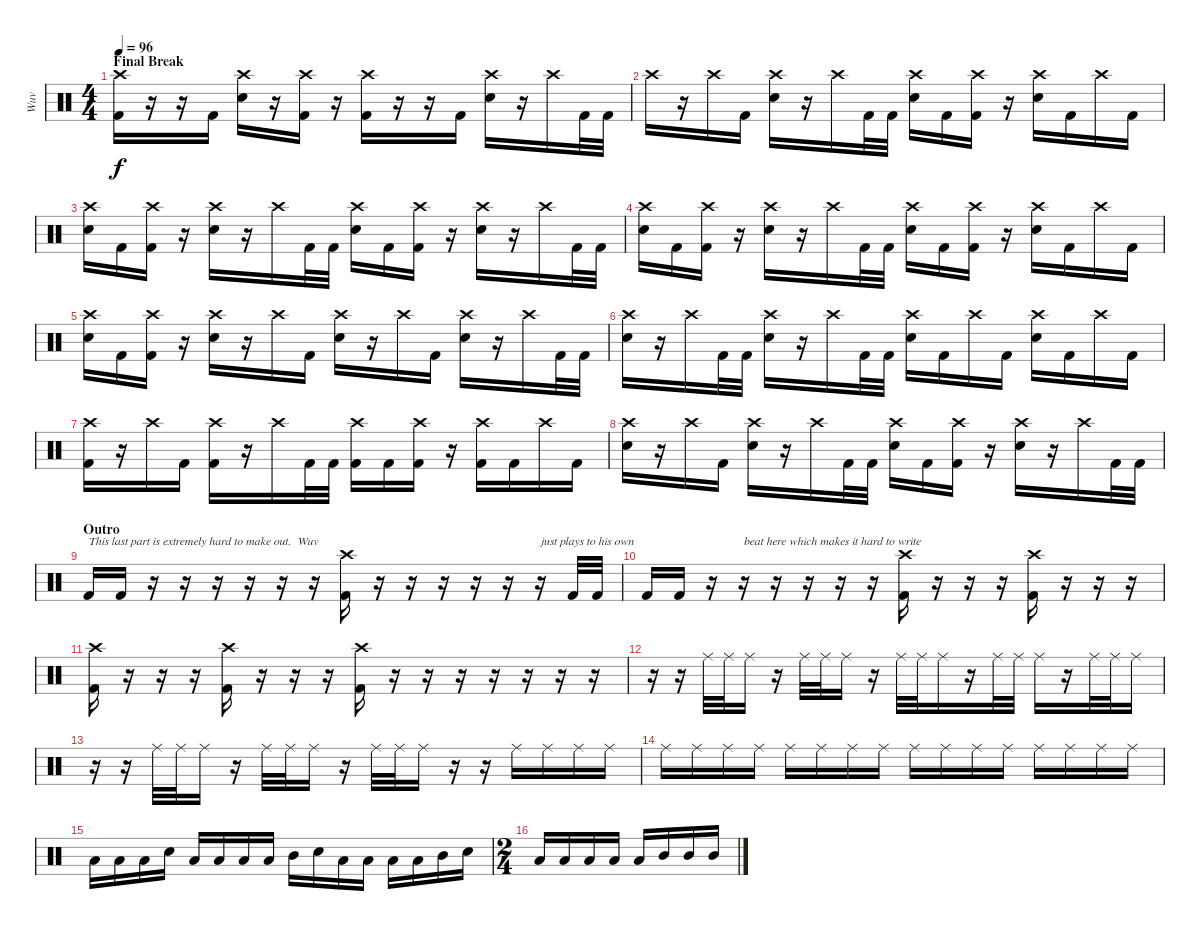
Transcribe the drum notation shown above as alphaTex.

\track ("Wuv" "Wuv") {instrument percussion}
\staff {score}
\articulation defaults
\ts (4 4)
\section ("" "Final Break")
\tempo 96
\clef neutral
\ks c
("Crash high (hit)" "Kick (hit) 2").16{dy f} r.16 r.16 "Kick (hit) 2".16 ("Crash high (hit)" "Snare (hit) 2").16 r.16 ("Crash high (hit)" "Kick (hit) 2").16 r.16 ("Crash high (hit)" "Kick (hit) 2").16 r.16 r.16 "Kick (hit) 2".16 ("Crash high (hit)" "Snare (hit) 2").16 r.16 "Crash high (hit)".16 "Kick (hit) 2".32 "Kick (hit) 2".32 |
"Crash high (hit)".16 r.16 "Crash high (hit)".16 "Kick (hit) 2".16 ("Crash high (hit)" "Snare (hit) 2").16 r.16 "Crash high (hit)".16 "Kick (hit) 2".32 "Kick (hit) 2".32 ("Crash high (hit)" "Snare (hit) 2").16 "Kick (hit) 2".16 ("Crash high (hit)" "Kick (hit) 2").16 r.16 ("Crash high (hit)" "Snare (hit) 2").16 "Kick (hit) 2".16 "Crash high (hit)".16 "Kick (hit) 2".16 |
("Crash high (hit)" "Snare (hit) 2").16 "Kick (hit) 2".16 ("Crash high (hit)" "Kick (hit) 2").16 r.16 ("Crash high (hit)" "Snare (hit) 2").16 r.16 "Crash high (hit)".16 "Kick (hit) 2".32 "Kick (hit) 2".32 ("Crash high (hit)" "Snare (hit) 2").16 "Kick (hit) 2".16 ("Crash high (hit)" "Kick (hit) 2").16 r.16 ("Crash high (hit)" "Snare (hit) 2").16 r.16 "Crash high (hit)".16 "Kick (hit) 2".32 "Kick (hit) 2".32 |
("Crash high (hit)" "Snare (hit) 2").16 "Kick (hit) 2".16 ("Crash high (hit)" "Kick (hit) 2").16 r.16 ("Crash high (hit)" "Snare (hit) 2").16 r.16 "Crash high (hit)".16 "Kick (hit) 2".32 "Kick (hit) 2".32 ("Crash high (hit)" "Snare (hit) 2").16 "Kick (hit) 2".16 ("Crash high (hit)" "Kick (hit) 2").16 r.16 ("Crash high (hit)" "Snare (hit) 2").16 "Kick (hit) 2".16 "Crash high (hit)".16 "Kick (hit) 2".16 |
("Crash high (hit)" "Snare (hit) 2").16 "Kick (hit) 2".16 ("Crash high (hit)" "Kick (hit) 2").16 r.16 ("Crash high (hit)" "Snare (hit) 2").16 r.16 "Crash high (hit)".16 "Kick (hit) 2".16 ("Crash high (hit)" "Snare (hit) 2").16 r.16 "Crash high (hit)".16 "Kick (hit) 2".16 ("Crash high (hit)" "Snare (hit) 2").16 r.16 "Crash high (hit)".16 "Kick (hit) 2".32 "Kick (hit) 2".32 |
("Crash high (hit)" "Snare (hit) 2").16 r.16 "Crash high (hit)".16 "Kick (hit) 2".32 "Kick (hit) 2".32 ("Crash high (hit)" "Snare (hit) 2").16 r.16 "Crash high (hit)".16 "Kick (hit) 2".32 "Kick (hit) 2".32 ("Crash high (hit)" "Snare (hit) 2").16 "Kick (hit) 2".16 "Crash high (hit)".16 "Kick (hit) 2".16 ("Crash high (hit)" "Snare (hit) 2").16 "Kick (hit) 2".16 "Crash high (hit)".16 "Kick (hit) 2".16 |
("Crash high (hit)" "Kick (hit) 2").16 r.16 "Crash high (hit)".16 "Kick (hit) 2".16 ("Crash high (hit)" "Kick (hit) 2").16 r.16 "Crash high (hit)".16 "Kick (hit) 2".32 "Kick (hit) 2".32 ("Crash high (hit)" "Kick (hit) 2").16 "Kick (hit) 2".16 ("Crash high (hit)" "Kick (hit) 2").16 r.16 ("Crash high (hit)" "Kick (hit) 2").16 "Kick (hit) 2".16 "Crash high (hit)".16 "Kick (hit) 2".16 |
("Crash high (hit)" "Snare (hit) 2").16 r.16 "Crash high (hit)".16 "Kick (hit) 2".16 ("Crash high (hit)" "Snare (hit) 2").16 r.16 "Crash high (hit)".16 "Kick (hit) 2".32 "Kick (hit) 2".32 ("Crash high (hit)" "Snare (hit) 2").16 "Kick (hit) 2".16 ("Crash high (hit)" "Kick (hit) 2").16 r.16 ("Crash high (hit)" "Snare (hit) 2").16 r.16 "Crash high (hit)".16 "Kick (hit) 2".32 "Kick (hit) 2".32 |
\section ("" "Outro")
"Kick (hit) 2".16{txt "This last part is extremely hard to make out.  Wuv"} "Kick (hit) 2".16 r.16 r.16 r.16 r.16 r.16 r.16 ("Crash high (hit)" "Kick (hit) 2").16 r.16 r.16 r.16 r.16 r.16 r.16{txt "just plays to his own "} "Kick (hit) 2".32 "Kick (hit) 2".32 |
"Kick (hit) 2".16 "Kick (hit) 2".16 r.16 r.16{txt "beat here which makes it hard to write"} r.16 r.16 r.16 r.16 ("Crash high (hit)" "Kick (hit) 2").16 r.16 r.16 r.16 ("Crash high (hit)" "Kick (hit) 2").16 r.16 r.16 r.16 |
("Crash high (hit)" "Kick (hit) 2").16 r.16 r.16 r.16 ("Crash high (hit)" "Kick (hit) 2").16 r.16 r.16 r.16 ("Crash high (hit)" "Kick (hit) 2").16 r.16 r.16 r.16 r.16 r.16 r.16 r.16 |
r.16 r.16 "Ride (middle)".32 "Ride (middle)".32 "Ride (middle)".16 r.16 "Ride (middle)".32 "Ride (middle)".32 "Ride (middle)".16 r.16 "Ride (middle)".32 "Ride (middle)".32 "Ride (middle)".16 r.16 "Ride (middle)".32 "Ride (middle)".32 "Ride (middle)".16 r.16 "Ride (middle)".32 "Ride (middle)".32 "Ride (middle)".16 |
r.16 r.16 "Ride (middle)".32 "Ride (middle)".32 "Ride (middle)".16 r.16 "Ride (middle)".32 "Ride (middle)".32 "Ride (middle)".16 r.16 "Ride (middle)".32 "Ride (middle)".32 "Ride (middle)".16 r.16 r.16 "Ride (middle)".16 "Ride (middle)".16 "Ride (middle)".16 "Ride (middle)".16 |
"Ride (middle)".16 "Ride (middle)".16 "Ride (middle)".16 "Ride (middle)".16 "Ride (middle)".16 "Ride (middle)".16 "Ride (middle)".16 "Ride (middle)".16 "Ride (middle)".16 "Ride (middle)".16 "Ride (middle)".16 "Ride (middle)".16 "Ride (middle)".16 "Ride (middle)".16 "Ride (middle)".16 "Ride (middle)".16 |
"Low Floor Tom (hit)".16 "Low Floor Tom (hit)".16 "Low Tom (hit)".16 "Snare (hit) 2".16 "Low Floor Tom (hit)".16 "Low Floor Tom (hit)".16 "Low Tom (hit)".16 "Low Tom (hit)".16 "Mid Tom (hit)".16 "Snare (hit) 2".16 "Low Floor Tom (hit)".16 "Low Floor Tom (hit)".16 "Low Tom (hit)".16 "Low Tom (hit)".16 "Mid Tom (hit)".16 "Snare (hit) 2".16 |
\ts (2 4)
"Low Floor Tom (hit)".16 "Low Floor Tom (hit)".16 "Low Tom (hit)".16 "Low Tom (hit)".16 "Low Tom (hit)".16 "Mid Tom (hit)".16 "Mid Tom (hit)".16 "Mid Tom (hit)".16
